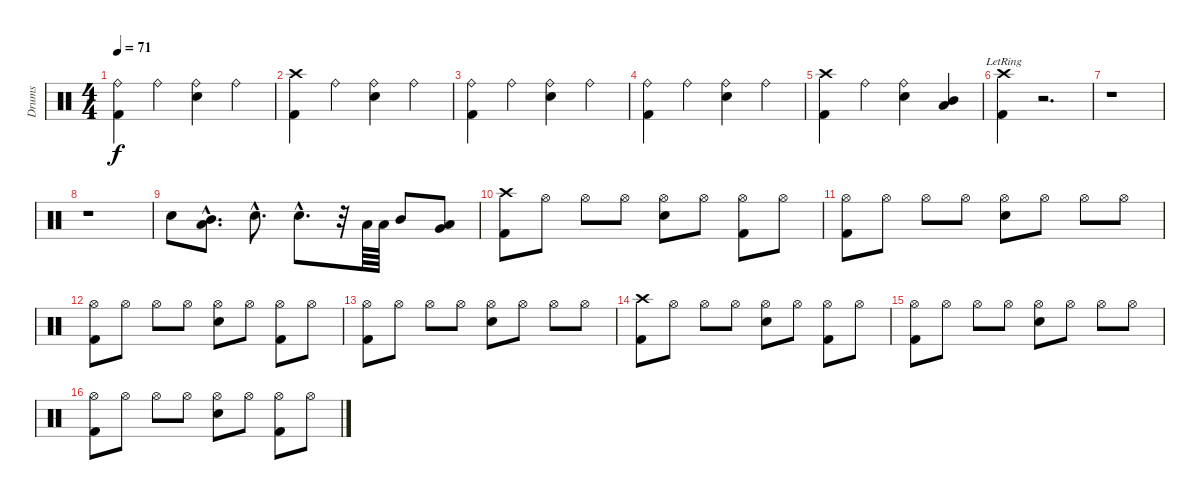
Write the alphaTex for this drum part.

\track ("Drums" "Drums") {instrument percussion}
\staff {score}
\articulation defaults
\ts (4 4)
\tempo 71
\clef neutral
\ks c
("Ride (bell)" "Kick (hit) 2").4{dy f} "Ride (bell)".4 ("Ride (bell)" "Snare (hit) 2").4 "Ride (bell)".4 |
("Crash high (hit)" "Kick (hit) 2").4 "Ride (bell)".4 ("Ride (bell)" "Snare (hit) 2").4 "Ride (bell)".4 |
("Ride (bell)" "Kick (hit) 2").4 "Ride (bell)".4 ("Ride (bell)" "Snare (hit) 2").4 "Ride (bell)".4 |
("Ride (bell)" "Kick (hit) 2").4 "Ride (bell)".4 ("Ride (bell)" "Snare (hit) 2").4 "Ride (bell)".4 |
("Crash high (hit)" "Kick (hit) 2").4 "Ride (bell)".4 ("Ride (bell)" "Snare (hit) 2").4 ("Mid Tom (hit)" "Low Tom (hit)").4 |
("Crash high (hit)"{lr} "Kick (hit) 2"{lr}).4 r.2{d} |
r.1 |
r.1 |
"Snare (hit) 2".8 ("Low Tom (hit)"{hac} "Mid Tom (hit)"{hac}).8{d} "Snare (hit) 2"{hac}.8{d} "Snare (hit) 2"{hac}.8{d} r.32 "Low Tom (hit)".64 "Low Tom (hit)".64 "Mid Tom (hit)".8 ("Low Floor Tom (hit)" "Very Low Tom (hit)").8 |
("Crash high (hit)" "Kick (hit) 2").8 "Hi-Hat (open)".8 "Hi-Hat (open)".8 "Hi-Hat (open)".8 ("Hi-Hat (open)" "Snare (hit) 2").8 "Hi-Hat (open)".8 ("Hi-Hat (open)" "Kick (hit) 2").8 "Hi-Hat (open)".8 |
("Hi-Hat (open)" "Kick (hit) 2").8 "Hi-Hat (open)".8 "Hi-Hat (open)".8 "Hi-Hat (open)".8 ("Hi-Hat (open)" "Snare (hit) 2").8 "Hi-Hat (open)".8 "Hi-Hat (open)".8 "Hi-Hat (open)".8 |
("Hi-Hat (open)" "Kick (hit) 2").8 "Hi-Hat (open)".8 "Hi-Hat (open)".8 "Hi-Hat (open)".8 ("Hi-Hat (open)" "Snare (hit) 2").8 "Hi-Hat (open)".8 ("Hi-Hat (open)" "Kick (hit) 2").8 "Hi-Hat (open)".8 |
("Hi-Hat (open)" "Kick (hit) 2").8 "Hi-Hat (open)".8 "Hi-Hat (open)".8 "Hi-Hat (open)".8 ("Hi-Hat (open)" "Snare (hit) 2").8 "Hi-Hat (open)".8 "Hi-Hat (open)".8 "Hi-Hat (open)".8 |
("Crash high (hit)" "Kick (hit) 2").8 "Hi-Hat (open)".8 "Hi-Hat (open)".8 "Hi-Hat (open)".8 ("Hi-Hat (open)" "Snare (hit) 2").8 "Hi-Hat (open)".8 ("Hi-Hat (open)" "Kick (hit) 2").8 "Hi-Hat (open)".8 |
("Hi-Hat (open)" "Kick (hit) 2").8 "Hi-Hat (open)".8 "Hi-Hat (open)".8 "Hi-Hat (open)".8 ("Hi-Hat (open)" "Snare (hit) 2").8 "Hi-Hat (open)".8 "Hi-Hat (open)".8 "Hi-Hat (open)".8 |
("Hi-Hat (open)" "Kick (hit) 2").8 "Hi-Hat (open)".8 "Hi-Hat (open)".8 "Hi-Hat (open)".8 ("Hi-Hat (open)" "Snare (hit) 2").8 "Hi-Hat (open)".8 ("Hi-Hat (open)" "Kick (hit) 2").8 "Hi-Hat (open)".8
